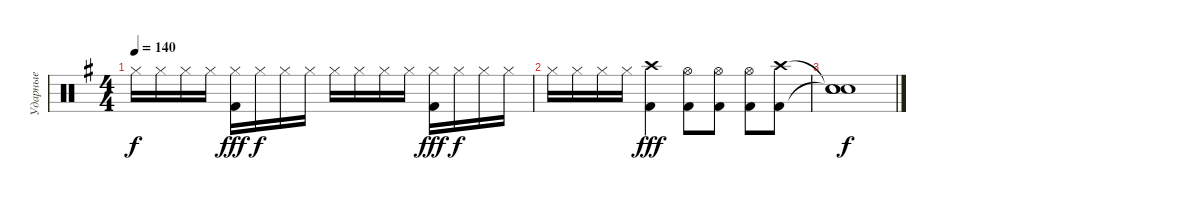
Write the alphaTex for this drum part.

\track ("Ударные" "Ударные") {instrument percussion}
\staff {score}
\articulation defaults
\ts (4 4)
\tempo 140
\clef neutral
\ks g "Hi-Hat (closed)".16{dy f} "Hi-Hat (closed)".16 "Hi-Hat (closed)".16 "Hi-Hat (closed)".16
("Hi-Hat (closed)" "Kick (hit) 2").16{dy fff} "Hi-Hat (closed)".16{dy f} "Hi-Hat (closed)".16 "Hi-Hat (closed)".16 "Hi-Hat (closed)".16 "Hi-Hat (closed)".16 "Hi-Hat (closed)".16 "Hi-Hat (closed)".16 ("Hi-Hat (closed)" "Kick (hit) 2").16{dy fff} "Hi-Hat (closed)".16{dy f} "Hi-Hat (closed)".16 "Hi-Hat (closed)".16 |
"Hi-Hat (closed)".16 "Hi-Hat (closed)".16 "Hi-Hat (closed)".16 "Hi-Hat (closed)".16 ("Kick (hit) 2" "Crash high (hit)").4{dy fff} ("Kick (hit) 2" "Hi-Hat (open)").8 ("Kick (hit) 2" "Hi-Hat (open)").8 ("Kick (hit) 2" "Hi-Hat (open)").8 ("Kick (hit) 2" "Crash high (hit)").8 |
("Snare (hit)"{t} "Snare (hit)"{t} "Snare (hit)").1{dy f}
